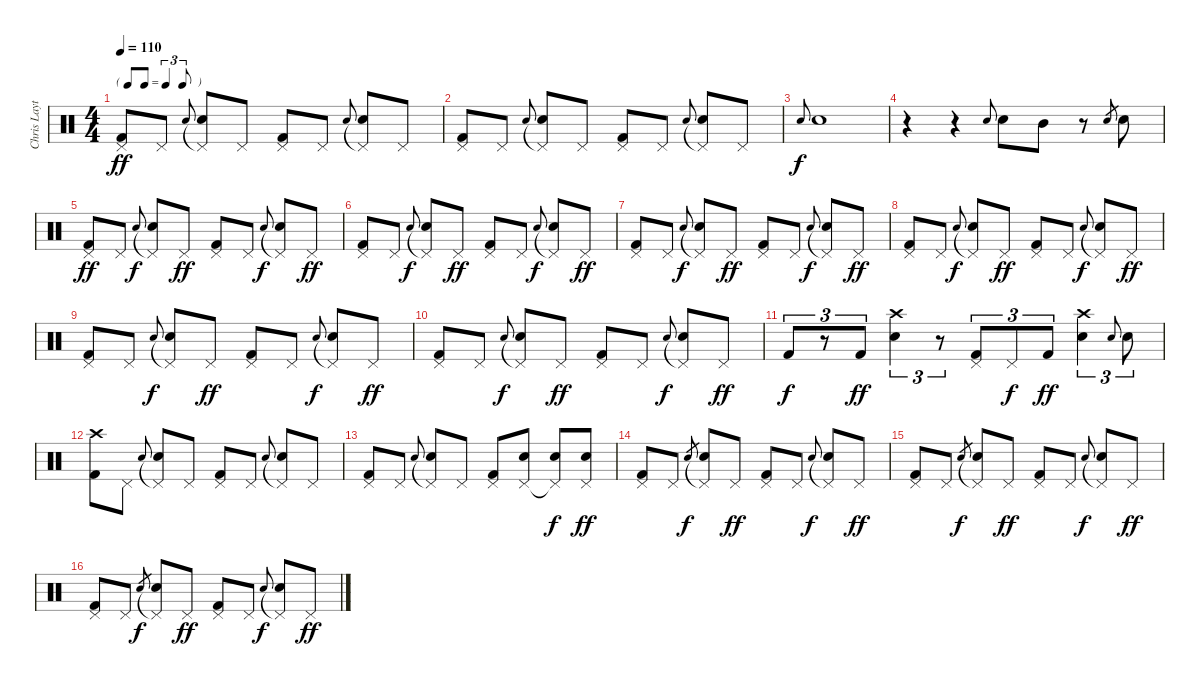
\track ("Chris Layton" "Chris Layt") {instrument percussion}
\staff {score}
\articulation defaults
\ts (4 4)
\tf triplet8th
\tempo 110
\clef neutral
\ks c
("Pedal Hi-Hat (hit)" "Kick (hit) 2").8{dy ff} "Pedal Hi-Hat (hit)".8 "Snare (hit) 2".8{gr onbeat} ("Pedal Hi-Hat (hit)"{t} "Snare (hit) 2").8 "Pedal Hi-Hat (hit)".8 ("Pedal Hi-Hat (hit)" "Kick (hit) 2").8 "Pedal Hi-Hat (hit)".8 "Snare (hit) 2".8{gr onbeat} ("Pedal Hi-Hat (hit)"{t} "Snare (hit) 2").8 "Pedal Hi-Hat (hit)".8 |
("Pedal Hi-Hat (hit)" "Kick (hit) 2").8 "Pedal Hi-Hat (hit)".8 "Snare (hit) 2".8{gr onbeat} ("Pedal Hi-Hat (hit)"{t} "Snare (hit) 2").8 "Pedal Hi-Hat (hit)".8 ("Pedal Hi-Hat (hit)" "Kick (hit) 2").8 "Pedal Hi-Hat (hit)".8 "Snare (hit) 2".8{gr onbeat} ("Pedal Hi-Hat (hit)"{t} "Snare (hit) 2").8 "Pedal Hi-Hat (hit)".8 |
"Snare (hit) 2".8{gr onbeat dy f} "Snare (hit) 2".1 |
r.4 r.4 "Snare (hit) 2".8{gr onbeat} "Snare (hit) 2".8 "Mid Tom (hit)".8 r.8 "Snare (hit) 2".8{gr} "Snare (hit) 2".8 |
("Pedal Hi-Hat (hit)" "Kick (hit) 2").8{dy ff} "Pedal Hi-Hat (hit)".8 "Snare (hit) 2".8{gr onbeat dy f} ("Pedal Hi-Hat (hit)"{t} "Snare (hit) 2").8 "Pedal Hi-Hat (hit)".8{dy ff} ("Pedal Hi-Hat (hit)" "Kick (hit) 2").8 "Pedal Hi-Hat (hit)".8 "Snare (hit) 2".8{gr onbeat dy f} ("Pedal Hi-Hat (hit)"{t} "Snare (hit) 2").8 "Pedal Hi-Hat (hit)".8{dy ff} |
("Pedal Hi-Hat (hit)" "Kick (hit) 2").8 "Pedal Hi-Hat (hit)".8 "Snare (hit) 2".8{gr onbeat dy f} ("Pedal Hi-Hat (hit)"{t} "Snare (hit) 2").8 "Pedal Hi-Hat (hit)".8{dy ff} ("Pedal Hi-Hat (hit)" "Kick (hit) 2").8 "Pedal Hi-Hat (hit)".8 "Snare (hit) 2".8{gr onbeat dy f} ("Pedal Hi-Hat (hit)"{t} "Snare (hit) 2").8 "Pedal Hi-Hat (hit)".8{dy ff} |
("Pedal Hi-Hat (hit)" "Kick (hit) 2").8 "Pedal Hi-Hat (hit)".8 "Snare (hit) 2".8{gr onbeat dy f} ("Pedal Hi-Hat (hit)"{t} "Snare (hit) 2").8 "Pedal Hi-Hat (hit)".8{dy ff} ("Pedal Hi-Hat (hit)" "Kick (hit) 2").8 "Pedal Hi-Hat (hit)".8 "Snare (hit) 2".8{gr onbeat dy f} ("Pedal Hi-Hat (hit)"{t} "Snare (hit) 2").8 "Pedal Hi-Hat (hit)".8{dy ff} |
("Pedal Hi-Hat (hit)" "Kick (hit) 2").8 "Pedal Hi-Hat (hit)".8 "Snare (hit) 2".8{gr onbeat dy f} ("Pedal Hi-Hat (hit)"{t} "Snare (hit) 2").8 "Pedal Hi-Hat (hit)".8{dy ff} ("Pedal Hi-Hat (hit)" "Kick (hit) 2").8 "Pedal Hi-Hat (hit)".8 "Snare (hit) 2".8{gr onbeat dy f} ("Pedal Hi-Hat (hit)"{t} "Snare (hit) 2").8 "Pedal Hi-Hat (hit)".8{dy ff} |
("Pedal Hi-Hat (hit)" "Kick (hit) 2").8 "Pedal Hi-Hat (hit)".8 "Snare (hit) 2".8{gr onbeat dy f} ("Pedal Hi-Hat (hit)"{t} "Snare (hit) 2").8 "Pedal Hi-Hat (hit)".8{dy ff} ("Pedal Hi-Hat (hit)" "Kick (hit) 2").8 "Pedal Hi-Hat (hit)".8 "Snare (hit) 2".8{gr onbeat dy f} ("Pedal Hi-Hat (hit)"{t} "Snare (hit) 2").8 "Pedal Hi-Hat (hit)".8{dy ff} |
("Pedal Hi-Hat (hit)" "Kick (hit) 2").8 "Pedal Hi-Hat (hit)".8 "Snare (hit) 2".8{gr onbeat dy f} ("Pedal Hi-Hat (hit)"{t} "Snare (hit) 2").8 "Pedal Hi-Hat (hit)".8{dy ff} ("Pedal Hi-Hat (hit)" "Kick (hit) 2").8 "Pedal Hi-Hat (hit)".8 "Snare (hit) 2".8{gr onbeat dy f} ("Pedal Hi-Hat (hit)"{t} "Snare (hit) 2").8 "Pedal Hi-Hat (hit)".8{dy ff} |
"Kick (hit) 2".8{tu (3 2) dy f} r.8{tu (3 2)} "Kick (hit) 2".8{tu (3 2) dy ff} ("Crash high (hit)" "Snare (hit) 2").4{tu (3 2)} r.8{tu (3 2)} ("Pedal Hi-Hat (hit)" "Kick (hit) 2").8{tu (3 2)} "Pedal Hi-Hat (hit)".8{tu (3 2) dy f} "Kick (hit) 2".8{tu (3 2) dy ff} ("Crash high (hit)" "Snare (hit) 2").4{tu (3 2)} "Snare (hit) 2".8{gr onbeat} "Snare (hit) 2".8{tu (3 2)} |
("Crash high (hit)" "Kick (hit) 2").8 "Pedal Hi-Hat (hit)".8 "Snare (hit) 2".8{gr onbeat} ("Pedal Hi-Hat (hit)"{t} "Snare (hit) 2").8 "Pedal Hi-Hat (hit)".8 ("Pedal Hi-Hat (hit)" "Kick (hit) 2").8 "Pedal Hi-Hat (hit)".8 "Snare (hit) 2".8{gr onbeat} ("Pedal Hi-Hat (hit)"{t} "Snare (hit) 2").8 "Pedal Hi-Hat (hit)".8 |
("Pedal Hi-Hat (hit)" "Kick (hit) 2").8 "Pedal Hi-Hat (hit)".8 "Snare (hit) 2".8{gr onbeat} ("Pedal Hi-Hat (hit)"{t} "Snare (hit) 2").8 "Pedal Hi-Hat (hit)".8 ("Pedal Hi-Hat (hit)" "Kick (hit) 2").8 ("Pedal Hi-Hat (hit)" "Snare (hit) 2").8 ("Pedal Hi-Hat (hit)"{t} "Snare (hit) 2").8{dy f} ("Pedal Hi-Hat (hit)" "Snare (hit) 2").8{dy ff} |
("Pedal Hi-Hat (hit)" "Kick (hit) 2").8 "Pedal Hi-Hat (hit)".8 "Snare (hit) 2".8{gr dy f} ("Pedal Hi-Hat (hit)"{t} "Snare (hit) 2").8 "Pedal Hi-Hat (hit)".8{dy ff} ("Pedal Hi-Hat (hit)" "Kick (hit) 2").8 "Pedal Hi-Hat (hit)".8 "Snare (hit) 2".8{gr onbeat dy f} ("Pedal Hi-Hat (hit)"{t} "Snare (hit) 2").8 "Pedal Hi-Hat (hit)".8{dy ff} |
("Pedal Hi-Hat (hit)" "Kick (hit) 2").8 "Pedal Hi-Hat (hit)".8 "Snare (hit) 2".8{gr dy f} ("Pedal Hi-Hat (hit)"{t} "Snare (hit) 2").8 "Pedal Hi-Hat (hit)".8{dy ff} ("Pedal Hi-Hat (hit)" "Kick (hit) 2").8 "Pedal Hi-Hat (hit)".8 "Snare (hit) 2".8{gr onbeat dy f} ("Pedal Hi-Hat (hit)"{t} "Snare (hit) 2").8 "Pedal Hi-Hat (hit)".8{dy ff} |
("Pedal Hi-Hat (hit)" "Kick (hit) 2").8 "Pedal Hi-Hat (hit)".8 "Snare (hit) 2".8{gr dy f} ("Pedal Hi-Hat (hit)"{t} "Snare (hit) 2").8 "Pedal Hi-Hat (hit)".8{dy ff} ("Pedal Hi-Hat (hit)" "Kick (hit) 2").8 "Pedal Hi-Hat (hit)".8 "Snare (hit) 2".8{gr onbeat dy f} ("Pedal Hi-Hat (hit)"{t} "Snare (hit) 2").8 "Pedal Hi-Hat (hit)".8{dy ff}
